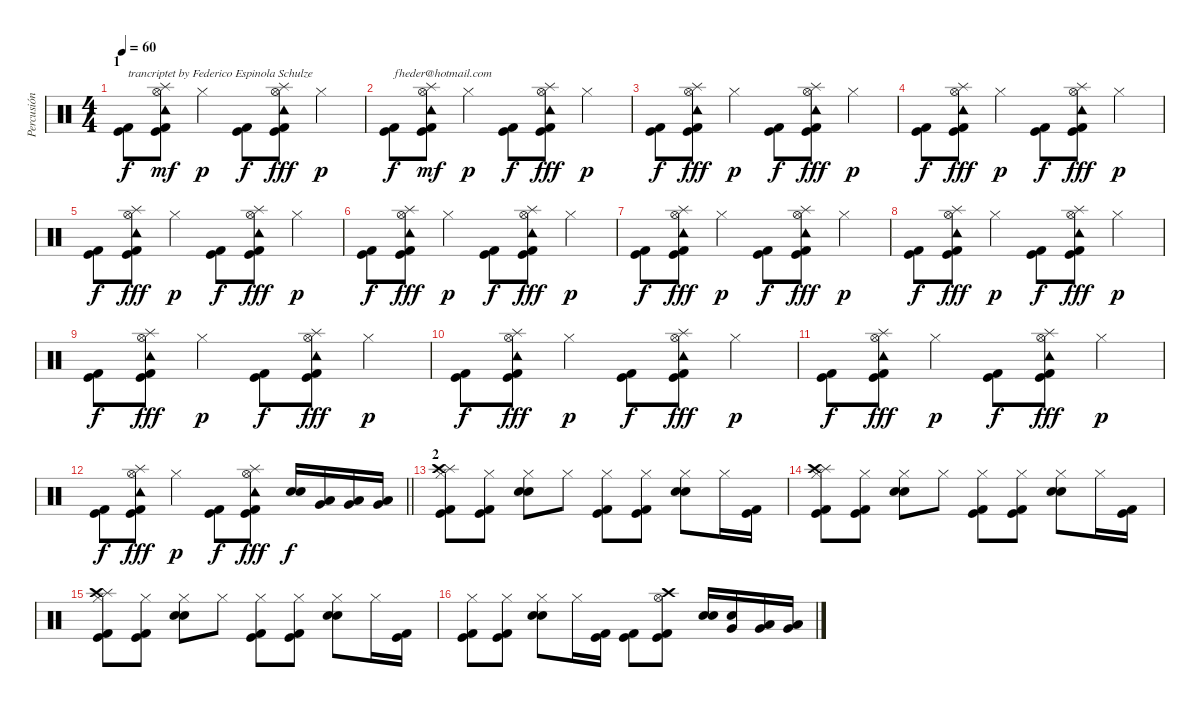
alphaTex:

\track ("Percusión" "Percusión") {instrument percussion}
\staff {score}
\articulation defaults
\ts (4 4)
\section ("" "1")
\tempo 60
\clef neutral
\ks c
("Kick (hit)" "Kick (hit) 2").8{txt "trancriptet by Federico Espinola Schulze" dy f} ("Kick (hit)" "Kick (hit) 2" "Tambourine (hit)" "Hi-Hat (open)" "Splash (hit)").8{dy mf} "Hi-Hat (closed)".4{dy p} ("Kick (hit)" "Kick (hit) 2").8{dy f} ("Kick (hit)" "Kick (hit) 2" "Tambourine (hit)" "Hi-Hat (open)" "Splash (hit)").8{dy fff} "Hi-Hat (closed)".4{dy p} |
("Kick (hit)" "Kick (hit) 2").8{txt "fheder@hotmail.com" dy f} ("Kick (hit)" "Kick (hit) 2" "Tambourine (hit)" "Hi-Hat (open)" "Splash (hit)").8{dy mf} "Hi-Hat (closed)".4{dy p} ("Kick (hit)" "Kick (hit) 2").8{dy f} ("Kick (hit)" "Kick (hit) 2" "Tambourine (hit)" "Hi-Hat (open)" "Splash (hit)").8{dy fff} "Hi-Hat (closed)".4{dy p} |
("Kick (hit)" "Kick (hit) 2").8{dy f} ("Kick (hit)" "Kick (hit) 2" "Tambourine (hit)" "Hi-Hat (open)" "Splash (hit)").8{dy fff} "Hi-Hat (closed)".4{dy p} ("Kick (hit)" "Kick (hit) 2").8{dy f} ("Kick (hit)" "Kick (hit) 2" "Tambourine (hit)" "Hi-Hat (open)" "Splash (hit)").8{dy fff} "Hi-Hat (closed)".4{dy p} |
("Kick (hit)" "Kick (hit) 2").8{dy f} ("Kick (hit)" "Kick (hit) 2" "Tambourine (hit)" "Hi-Hat (open)" "Splash (hit)").8{dy fff} "Hi-Hat (closed)".4{dy p} ("Kick (hit)" "Kick (hit) 2").8{dy f} ("Kick (hit)" "Kick (hit) 2" "Tambourine (hit)" "Hi-Hat (open)" "Splash (hit)").8{dy fff} "Hi-Hat (closed)".4{dy p} |
("Kick (hit)" "Kick (hit) 2").8{dy f} ("Kick (hit)" "Kick (hit) 2" "Tambourine (hit)" "Hi-Hat (open)" "Splash (hit)").8{dy fff} "Hi-Hat (closed)".4{dy p} ("Kick (hit)" "Kick (hit) 2").8{dy f} ("Kick (hit)" "Kick (hit) 2" "Tambourine (hit)" "Hi-Hat (open)" "Splash (hit)").8{dy fff} "Hi-Hat (closed)".4{dy p} |
("Kick (hit)" "Kick (hit) 2").8{dy f} ("Kick (hit)" "Kick (hit) 2" "Tambourine (hit)" "Hi-Hat (open)" "Splash (hit)").8{dy fff} "Hi-Hat (closed)".4{dy p} ("Kick (hit)" "Kick (hit) 2").8{dy f} ("Kick (hit)" "Kick (hit) 2" "Tambourine (hit)" "Hi-Hat (open)" "Splash (hit)").8{dy fff} "Hi-Hat (closed)".4{dy p} |
("Kick (hit)" "Kick (hit) 2").8{dy f} ("Kick (hit)" "Kick (hit) 2" "Tambourine (hit)" "Hi-Hat (open)" "Splash (hit)").8{dy fff} "Hi-Hat (closed)".4{dy p} ("Kick (hit)" "Kick (hit) 2").8{dy f} ("Kick (hit)" "Kick (hit) 2" "Tambourine (hit)" "Hi-Hat (open)" "Splash (hit)").8{dy fff} "Hi-Hat (closed)".4{dy p} |
("Kick (hit)" "Kick (hit) 2").8{dy f} ("Kick (hit)" "Kick (hit) 2" "Tambourine (hit)" "Hi-Hat (open)" "Splash (hit)").8{dy fff} "Hi-Hat (closed)".4{dy p} ("Kick (hit)" "Kick (hit) 2").8{dy f} ("Kick (hit)" "Kick (hit) 2" "Tambourine (hit)" "Hi-Hat (open)" "Splash (hit)").8{dy fff} "Hi-Hat (closed)".4{dy p} |
("Kick (hit)" "Kick (hit) 2").8{dy f} ("Kick (hit)" "Kick (hit) 2" "Tambourine (hit)" "Hi-Hat (open)" "Splash (hit)").8{dy fff} "Hi-Hat (closed)".4{dy p} ("Kick (hit)" "Kick (hit) 2").8{dy f} ("Kick (hit)" "Kick (hit) 2" "Tambourine (hit)" "Hi-Hat (open)" "Splash (hit)").8{dy fff} "Hi-Hat (closed)".4{dy p} |
("Kick (hit)" "Kick (hit) 2").8{dy f} ("Kick (hit)" "Kick (hit) 2" "Tambourine (hit)" "Hi-Hat (open)" "Splash (hit)").8{dy fff} "Hi-Hat (closed)".4{dy p} ("Kick (hit)" "Kick (hit) 2").8{dy f} ("Kick (hit)" "Kick (hit) 2" "Tambourine (hit)" "Hi-Hat (open)" "Splash (hit)").8{dy fff} "Hi-Hat (closed)".4{dy p} |
("Kick (hit)" "Kick (hit) 2").8{dy f} ("Kick (hit)" "Kick (hit) 2" "Tambourine (hit)" "Hi-Hat (open)" "Splash (hit)").8{dy fff} "Hi-Hat (closed)".4{dy p} ("Kick (hit)" "Kick (hit) 2").8{dy f} ("Kick (hit)" "Kick (hit) 2" "Tambourine (hit)" "Hi-Hat (open)" "Splash (hit)").8{dy fff} "Hi-Hat (closed)".4{dy p} |
\barLineRight lightlight
("Kick (hit)" "Kick (hit) 2").8{dy f} ("Kick (hit)" "Kick (hit) 2" "Tambourine (hit)" "Hi-Hat (open)" "Splash (hit)").8{dy fff} "Hi-Hat (closed)".4{dy p} ("Kick (hit)" "Kick (hit) 2").8{dy f} ("Kick (hit)" "Kick (hit) 2" "Tambourine (hit)" "Hi-Hat (open)" "Splash (hit)").8{dy fff} ("Snare (hit) 2" "Electric Snare (hit)").16{dy f} ("Very Low Tom (hit)" "Low Floor Tom (hit)").16 ("Very Low Tom (hit)" "Low Floor Tom (hit)").16 ("Very Low Tom (hit)" "Low Floor Tom (hit)").16 |
\section ("" "2")
("Kick (hit) 2" "Kick (hit)" "Hi-Hat (closed)" "Splash (hit)" "Crash high (hit)").8 ("Kick (hit) 2" "Kick (hit)" "Hi-Hat (closed)").8 ("Electric Snare (hit)" "Snare (hit) 2" "Hi-Hat (closed)").8 "Hi-Hat (closed)".8 ("Kick (hit) 2" "Kick (hit)" "Hi-Hat (closed)").8 ("Kick (hit) 2" "Kick (hit)" "Hi-Hat (closed)").8 ("Electric Snare (hit)" "Snare (hit) 2" "Hi-Hat (closed)").8 "Hi-Hat (closed)".16 ("Kick (hit) 2" "Kick (hit)").16 |
("Kick (hit) 2" "Kick (hit)" "Hi-Hat (closed)" "Splash (hit)" "Crash high (hit)").8 ("Kick (hit) 2" "Kick (hit)" "Hi-Hat (closed)").8 ("Electric Snare (hit)" "Snare (hit) 2" "Hi-Hat (closed)").8 "Hi-Hat (closed)".8 ("Kick (hit) 2" "Kick (hit)" "Hi-Hat (closed)").8 ("Kick (hit) 2" "Kick (hit)" "Hi-Hat (closed)").8 ("Electric Snare (hit)" "Snare (hit) 2" "Hi-Hat (closed)").8 "Hi-Hat (closed)".16 ("Kick (hit) 2" "Kick (hit)").16 |
("Kick (hit) 2" "Kick (hit)" "Hi-Hat (closed)" "Splash (hit)" "Crash high (hit)").8 ("Kick (hit) 2" "Kick (hit)" "Hi-Hat (closed)").8 ("Electric Snare (hit)" "Snare (hit) 2" "Hi-Hat (closed)").8 "Hi-Hat (closed)".8 ("Kick (hit) 2" "Kick (hit)" "Hi-Hat (closed)").8 ("Kick (hit) 2" "Kick (hit)" "Hi-Hat (closed)").8 ("Electric Snare (hit)" "Snare (hit) 2" "Hi-Hat (closed)").8 "Hi-Hat (closed)".16 ("Kick (hit) 2" "Kick (hit)").16 |
("Kick (hit) 2" "Kick (hit)" "Hi-Hat (closed)").8 ("Kick (hit) 2" "Kick (hit)" "Hi-Hat (closed)").8 ("Electric Snare (hit)" "Snare (hit) 2" "Hi-Hat (closed)").8 "Hi-Hat (closed)".16 ("Kick (hit) 2" "Kick (hit)").16 ("Kick (hit)" "Kick (hit) 2").8 ("Kick (hit)" "Kick (hit) 2" "Crash high (hit)" "Hi-Hat (open)").8 ("Snare (hit) 2" "Electric Snare (hit)").16 ("Very Low Tom (hit)" "Snare (hit)").16 ("Very Low Tom (hit)" "Low Floor Tom (hit)").16 ("Very Low Tom (hit)" "Low Floor Tom (hit)").16
